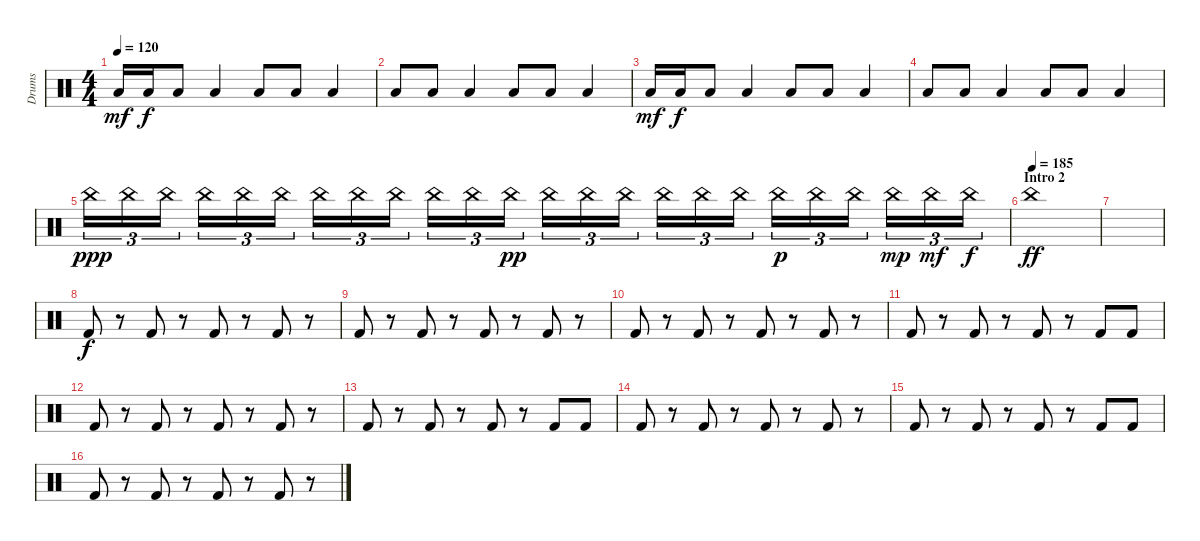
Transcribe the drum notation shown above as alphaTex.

\track ("Drums" "Drums") {instrument percussion}
\staff {score}
\articulation defaults
\ts (4 4)
\tempo 120
\clef neutral
\ks c "Low Floor Tom (hit)".16{dy mf} "Low Floor Tom (hit)".16{dy f} "Low Floor Tom (hit)".8 "Low Floor Tom (hit)".4 "Low Floor Tom (hit)".8 "Low Floor Tom (hit)".8 "Low Floor Tom (hit)".4
|
"Low Floor Tom (hit)".8 "Low Floor Tom (hit)".8 "Low Floor Tom (hit)".4 "Low Floor Tom (hit)".8 "Low Floor Tom (hit)".8 "Low Floor Tom (hit)".4 |
"Low Floor Tom (hit)".16{dy mf} "Low Floor Tom (hit)".16{dy f} "Low Floor Tom (hit)".8 "Low Floor Tom (hit)".4 "Low Floor Tom (hit)".8 "Low Floor Tom (hit)".8 "Low Floor Tom (hit)".4 |
"Low Floor Tom (hit)".8 "Low Floor Tom (hit)".8 "Low Floor Tom (hit)".4 "Low Floor Tom (hit)".8 "Low Floor Tom (hit)".8 "Low Floor Tom (hit)".4 |
"China (hit)".16{tu (3 2) dy ppp} "China (hit)".16{tu (3 2)} "China (hit)".16{tu (3 2)} "China (hit)".16{tu (3 2)} "China (hit)".16{tu (3 2)} "China (hit)".16{tu (3 2)} "China (hit)".16{tu (3 2)} "China (hit)".16{tu (3 2)} "China (hit)".16{tu (3 2)} "China (hit)".16{tu (3 2)} "China (hit)".16{tu (3 2)} "China (hit)".16{tu (3 2) dy pp} "China (hit)".16{tu (3 2)} "China (hit)".16{tu (3 2)} "China (hit)".16{tu (3 2)} "China (hit)".16{tu (3 2)} "China (hit)".16{tu (3 2)} "China (hit)".16{tu (3 2)} "China (hit)".16{tu (3 2) dy p} "China (hit)".16{tu (3 2)} "China (hit)".16{tu (3 2)} "China (hit)".16{tu (3 2) dy mp} "China (hit)".16{tu (3 2) dy mf} "China (hit)".16{tu (3 2) dy f} |
\section ("" "Intro 2")
\tempo (185)
"China (hit)".1{dy ff} |
|
"Kick (hit) 2".8{dy f} r.8 "Kick (hit) 2".8 r.8 "Kick (hit) 2".8 r.8 "Kick (hit) 2".8 r.8 |
"Kick (hit) 2".8 r.8 "Kick (hit) 2".8 r.8 "Kick (hit) 2".8 r.8 "Kick (hit) 2".8 r.8 |
"Kick (hit) 2".8 r.8 "Kick (hit) 2".8 r.8 "Kick (hit) 2".8 r.8 "Kick (hit) 2".8 r.8 |
"Kick (hit) 2".8 r.8 "Kick (hit) 2".8 r.8 "Kick (hit) 2".8 r.8 "Kick (hit) 2".8 "Kick (hit) 2".8 |
"Kick (hit) 2".8 r.8 "Kick (hit) 2".8 r.8 "Kick (hit) 2".8 r.8 "Kick (hit) 2".8 r.8 |
"Kick (hit) 2".8 r.8 "Kick (hit) 2".8 r.8 "Kick (hit) 2".8 r.8 "Kick (hit) 2".8 "Kick (hit) 2".8 |
"Kick (hit) 2".8 r.8 "Kick (hit) 2".8 r.8 "Kick (hit) 2".8 r.8 "Kick (hit) 2".8 r.8 |
"Kick (hit) 2".8 r.8 "Kick (hit) 2".8 r.8 "Kick (hit) 2".8 r.8 "Kick (hit) 2".8 "Kick (hit) 2".8 |
"Kick (hit) 2".8 r.8 "Kick (hit) 2".8 r.8 "Kick (hit) 2".8 r.8 "Kick (hit) 2".8 r.8
